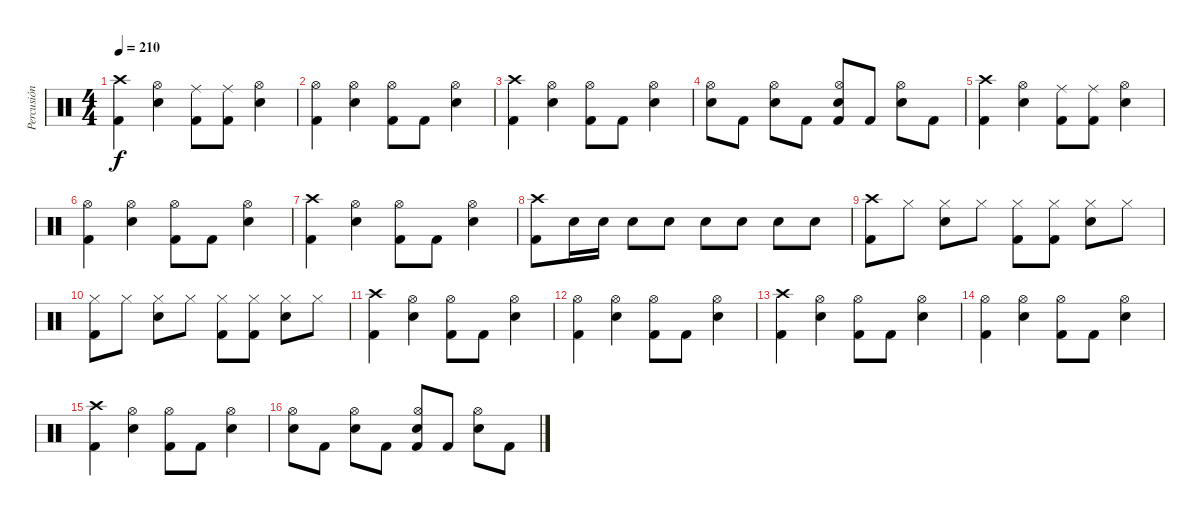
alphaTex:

\track ("Percusión" "Percusión") {instrument percussion}
\staff {score}
\articulation defaults
\ts (4 4)
\tempo 210
\clef neutral
\ks c
("Crash high (hit)" "Kick (hit) 2").4{dy f} ("Hi-Hat (open)" "Electric Snare (hit)").4 ("Ride (middle)" "Kick (hit) 2").8 ("Ride (middle)" "Kick (hit) 2").8 ("Hi-Hat (open)" "Electric Snare (hit)").4 |
("Hi-Hat (open)" "Kick (hit) 2").4 ("Hi-Hat (open)" "Electric Snare (hit)").4 ("Hi-Hat (open)" "Kick (hit) 2").8 "Kick (hit) 2".8 ("Hi-Hat (open)" "Electric Snare (hit)").4 |
("Crash high (hit)" "Kick (hit) 2").4 ("Hi-Hat (open)" "Electric Snare (hit)").4 ("Hi-Hat (open)" "Kick (hit) 2").8 "Kick (hit) 2".8 ("Hi-Hat (open)" "Electric Snare (hit)").4 |
("Hi-Hat (open)" "Electric Snare (hit)").8 "Kick (hit) 2".8 ("Hi-Hat (open)" "Electric Snare (hit)").8 "Kick (hit) 2".8 ("Hi-Hat (open)" "Electric Snare (hit)" "Kick (hit) 2").8 "Kick (hit) 2".8 ("Hi-Hat (open)" "Electric Snare (hit)").8 "Kick (hit) 2".8 |
("Crash high (hit)" "Kick (hit) 2").4 ("Hi-Hat (open)" "Electric Snare (hit)").4 ("Ride (middle)" "Kick (hit) 2").8 ("Ride (middle)" "Kick (hit) 2").8 ("Hi-Hat (open)" "Electric Snare (hit)").4 |
("Hi-Hat (open)" "Kick (hit) 2").4 ("Hi-Hat (open)" "Electric Snare (hit)").4 ("Hi-Hat (open)" "Kick (hit) 2").8 "Kick (hit) 2".8 ("Hi-Hat (open)" "Electric Snare (hit)").4 |
("Crash high (hit)" "Kick (hit) 2").4 ("Hi-Hat (open)" "Electric Snare (hit)").4 ("Hi-Hat (open)" "Kick (hit) 2").8 "Kick (hit) 2".8 ("Hi-Hat (open)" "Electric Snare (hit)").4 |
("Crash high (hit)" "Kick (hit) 2").8 "Electric Snare (hit)".16 "Electric Snare (hit)".16 "Electric Snare (hit)".8 "Electric Snare (hit)".8 "Electric Snare (hit)".8 "Electric Snare (hit)".8 "Electric Snare (hit)".8 "Electric Snare (hit)".8 |
("Crash high (hit)" "Kick (hit) 2").8 "Hi-Hat (closed)".8 ("Hi-Hat (closed)" "Electric Snare (hit)").8 "Hi-Hat (closed)".8 ("Hi-Hat (closed)" "Kick (hit) 2").8 ("Hi-Hat (closed)" "Kick (hit) 2").8 ("Hi-Hat (closed)" "Electric Snare (hit)").8 "Hi-Hat (closed)".8 |
("Hi-Hat (closed)" "Kick (hit) 2").8 "Hi-Hat (closed)".8 ("Hi-Hat (closed)" "Electric Snare (hit)").8 "Hi-Hat (closed)".8 ("Hi-Hat (closed)" "Kick (hit) 2").8 ("Hi-Hat (closed)" "Kick (hit) 2").8 ("Hi-Hat (closed)" "Electric Snare (hit)").8 "Hi-Hat (closed)".8 |
("Crash high (hit)" "Kick (hit) 2").4 ("Hi-Hat (open)" "Electric Snare (hit)").4 ("Hi-Hat (open)" "Kick (hit) 2").8 "Kick (hit) 2".8 ("Hi-Hat (open)" "Electric Snare (hit)").4 |
("Hi-Hat (open)" "Kick (hit) 2").4 ("Hi-Hat (open)" "Electric Snare (hit)").4 ("Hi-Hat (open)" "Kick (hit) 2").8 "Kick (hit) 2".8 ("Hi-Hat (open)" "Electric Snare (hit)").4 |
("Crash high (hit)" "Kick (hit) 2").4 ("Hi-Hat (open)" "Electric Snare (hit)").4 ("Hi-Hat (open)" "Kick (hit) 2").8 "Kick (hit) 2".8 ("Hi-Hat (open)" "Electric Snare (hit)").4 |
("Hi-Hat (open)" "Kick (hit) 2").4 ("Hi-Hat (open)" "Electric Snare (hit)").4 ("Hi-Hat (open)" "Kick (hit) 2").8 "Kick (hit) 2".8 ("Hi-Hat (open)" "Electric Snare (hit)").4 |
("Crash high (hit)" "Kick (hit) 2").4 ("Hi-Hat (open)" "Electric Snare (hit)").4 ("Hi-Hat (open)" "Kick (hit) 2").8 "Kick (hit) 2".8 ("Hi-Hat (open)" "Electric Snare (hit)").4 |
("Hi-Hat (open)" "Electric Snare (hit)").8 "Kick (hit) 2".8 ("Hi-Hat (open)" "Electric Snare (hit)").8 "Kick (hit) 2".8 ("Hi-Hat (open)" "Electric Snare (hit)" "Kick (hit) 2").8 "Kick (hit) 2".8 ("Hi-Hat (open)" "Electric Snare (hit)").8 "Kick (hit) 2".8
